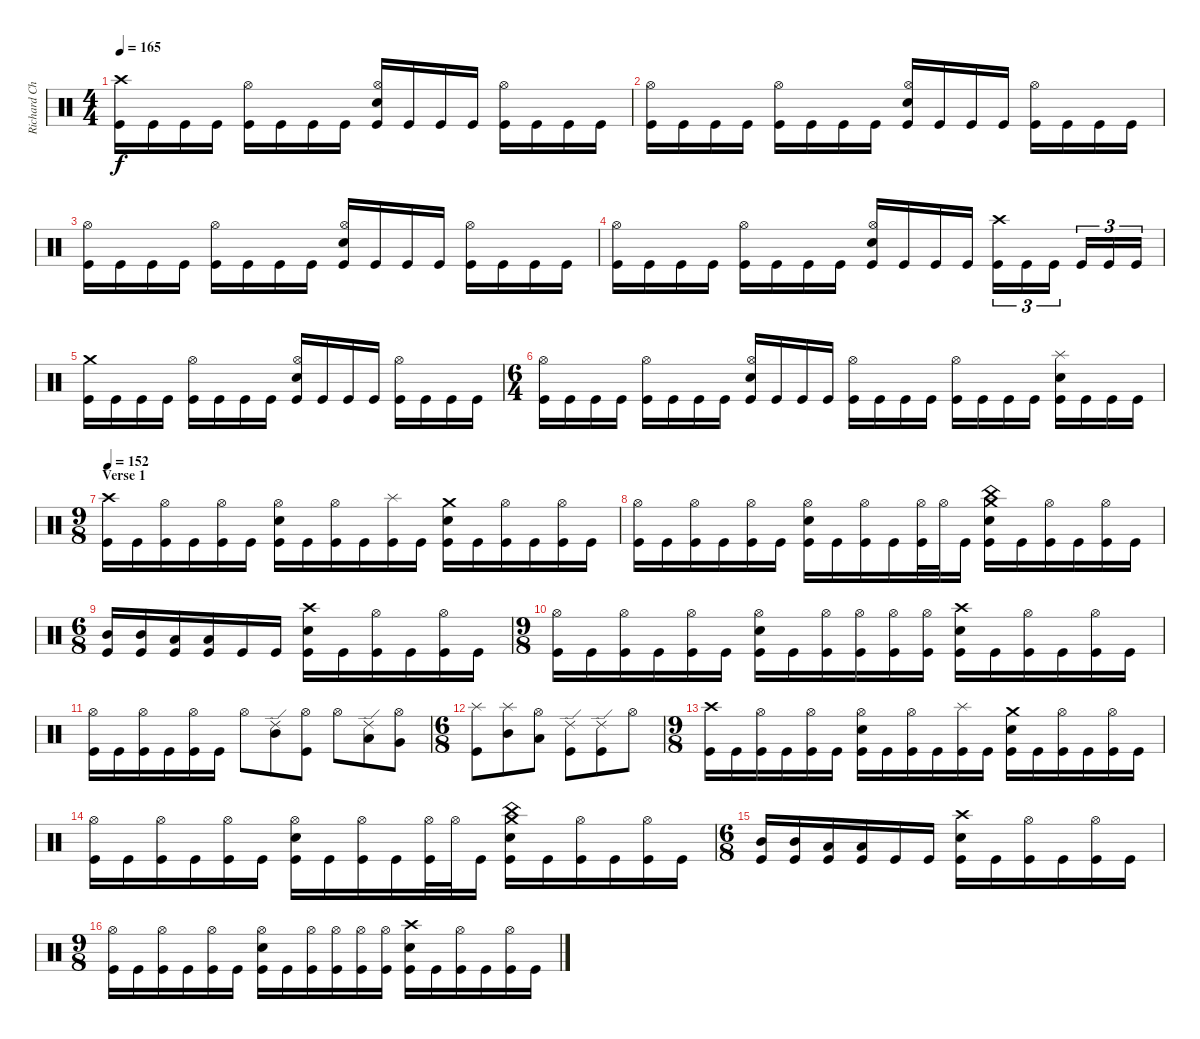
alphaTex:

\track ("Richard Christy " "Richard Ch") {instrument percussion}
\staff {score}
\articulation defaults
\ts (4 4)
\tempo 165
\clef neutral
\ks c
("Crash high (hit)" "Kick (hit)").16{dy f} "Kick (hit)".16 "Kick (hit)".16 "Kick (hit)".16 ("Hi-Hat (open)" "Kick (hit)").16 "Kick (hit)".16 "Kick (hit)".16 "Kick (hit)".16 ("Hi-Hat (open)" "Electric Snare (hit)" "Kick (hit)").16 "Kick (hit)".16 "Kick (hit)".16 "Kick (hit)".16 ("Hi-Hat (open)" "Kick (hit)").16 "Kick (hit)".16 "Kick (hit)".16 "Kick (hit)".16 |
("Hi-Hat (open)" "Kick (hit)").16 "Kick (hit)".16 "Kick (hit)".16 "Kick (hit)".16 ("Hi-Hat (open)" "Kick (hit)").16 "Kick (hit)".16 "Kick (hit)".16 "Kick (hit)".16 ("Hi-Hat (open)" "Electric Snare (hit)" "Kick (hit)").16 "Kick (hit)".16 "Kick (hit)".16 "Kick (hit)".16 ("Hi-Hat (open)" "Kick (hit)").16 "Kick (hit)".16 "Kick (hit)".16 "Kick (hit)".16 |
("Hi-Hat (open)" "Kick (hit)").16 "Kick (hit)".16 "Kick (hit)".16 "Kick (hit)".16 ("Hi-Hat (open)" "Kick (hit)").16 "Kick (hit)".16 "Kick (hit)".16 "Kick (hit)".16 ("Hi-Hat (open)" "Electric Snare (hit)" "Kick (hit)").16 "Kick (hit)".16 "Kick (hit)".16 "Kick (hit)".16 ("Hi-Hat (open)" "Kick (hit)").16 "Kick (hit)".16 "Kick (hit)".16 "Kick (hit)".16 |
("Hi-Hat (open)" "Kick (hit)").16 "Kick (hit)".16 "Kick (hit)".16 "Kick (hit)".16 ("Hi-Hat (open)" "Kick (hit)").16 "Kick (hit)".16 "Kick (hit)".16 "Kick (hit)".16 ("Hi-Hat (open)" "Electric Snare (hit)" "Kick (hit)").16 "Kick (hit)".16 "Kick (hit)".16 "Kick (hit)".16 ("Crash high (hit)" "Kick (hit)").16{tu (3 2)} "Kick (hit)".16{tu (3 2)} "Kick (hit)".16{tu (3 2)} "Kick (hit)".16{tu (3 2)} "Kick (hit)".16{tu (3 2)} "Kick (hit)".16{tu (3 2)} |
("Crash medium (hit)" "Kick (hit)").16 "Kick (hit)".16 "Kick (hit)".16 "Kick (hit)".16 ("Hi-Hat (open)" "Kick (hit)").16 "Kick (hit)".16 "Kick (hit)".16 "Kick (hit)".16 ("Hi-Hat (open)" "Electric Snare (hit)" "Kick (hit)").16 "Kick (hit)".16 "Kick (hit)".16 "Kick (hit)".16 ("Hi-Hat (open)" "Kick (hit)").16 "Kick (hit)".16 "Kick (hit)".16 "Kick (hit)".16 |
\ts (6 4)
("Hi-Hat (open)" "Kick (hit)").16 "Kick (hit)".16 "Kick (hit)".16 "Kick (hit)".16 ("Hi-Hat (open)" "Kick (hit)").16 "Kick (hit)".16 "Kick (hit)".16 "Kick (hit)".16 ("Hi-Hat (open)" "Electric Snare (hit)" "Kick (hit)").16 "Kick (hit)".16 "Kick (hit)".16 "Kick (hit)".16 ("Hi-Hat (open)" "Kick (hit)").16 "Kick (hit)".16 "Kick (hit)".16 "Kick (hit)".16 ("Hi-Hat (open)" "Kick (hit)").16 "Kick (hit)".16 "Kick (hit)".16 "Kick (hit)".16 ("Splash (hit)" "Electric Snare (hit)" "Kick (hit)").16 "Kick (hit)".16 "Kick (hit)".16 "Kick (hit)".16 |
\ts (9 8)
\section ("" "Verse 1")
\tempo 152
("Crash high (hit)" "Kick (hit)").16 "Kick (hit)".16 ("Hi-Hat (open)" "Kick (hit)").16 "Kick (hit)".16 ("Hi-Hat (open)" "Kick (hit)").16 "Kick (hit)".16 ("Hi-Hat (open)" "Electric Snare (hit)" "Kick (hit)").16 "Kick (hit)".16 ("Hi-Hat (open)" "Kick (hit)").16 "Kick (hit)".16 ("Splash (hit)" "Kick (hit)").16 "Kick (hit)".16 ("Crash medium (hit)" "Electric Snare (hit)" "Kick (hit)").16 "Kick (hit)".16 ("Hi-Hat (open)" "Kick (hit)").16 "Kick (hit)".16 ("Hi-Hat (open)" "Kick (hit)").16 "Kick (hit)".16 |
("Hi-Hat (open)" "Kick (hit)").16 "Kick (hit)".16 ("Hi-Hat (open)" "Kick (hit)").16 "Kick (hit)".16 ("Hi-Hat (open)" "Kick (hit)").16 "Kick (hit)".16 ("Hi-Hat (open)" "Electric Snare (hit)" "Kick (hit)").16 "Kick (hit)".16 ("Hi-Hat (open)" "Kick (hit)").16 "Kick (hit)".16 ("Hi-Hat (open)" "Kick (hit)").32 "Hi-Hat (open)".32 "Kick (hit)".16 ("Crash medium (hit)" "China (hit)" "Electric Snare (hit)" "Kick (hit)").16 "Kick (hit)".16 ("Hi-Hat (open)" "Kick (hit)").16 "Kick (hit)".16 ("Hi-Hat (open)" "Kick (hit)").16 "Kick (hit)".16 |
\ts (6 8)
("Mid Tom (hit)" "Kick (hit)").16 ("Mid Tom (hit)" "Kick (hit)").16 ("Low Tom (hit)" "Kick (hit)").16 ("Low Tom (hit)" "Kick (hit)").16 "Kick (hit)".16 "Kick (hit)".16 ("Crash high (hit)" "Electric Snare (hit)" "Kick (hit)").16 "Kick (hit)".16 ("Hi-Hat (open)" "Kick (hit)").16 "Kick (hit)".16 ("Hi-Hat (open)" "Kick (hit)").16 "Kick (hit)".16 |
\ts (9 8)
("Hi-Hat (open)" "Kick (hit)").16 "Kick (hit)".16 ("Hi-Hat (open)" "Kick (hit)").16 "Kick (hit)".16 ("Hi-Hat (open)" "Kick (hit)").16 "Kick (hit)".16 ("Hi-Hat (open)" "Electric Snare (hit)" "Kick (hit)").16 "Kick (hit)".16 ("Hi-Hat (open)" "Kick (hit)").16 ("Hi-Hat (open)" "Kick (hit)").16 ("Hi-Hat (open)" "Kick (hit)").16 ("Hi-Hat (open)" "Kick (hit)").16 ("Crash high (hit)" "Electric Snare (hit)" "Kick (hit)").16 "Kick (hit)".16 ("Hi-Hat (open)" "Kick (hit)").16 "Kick (hit)".16 ("Hi-Hat (open)" "Kick (hit)").16 "Kick (hit)".16 |
("Hi-Hat (open)" "Kick (hit)").16 "Kick (hit)".16 ("Hi-Hat (open)" "Kick (hit)").16 "Kick (hit)".16 ("Hi-Hat (open)" "Kick (hit)").16 "Kick (hit)".16 "Hi-Hat (open)".8 ("Ride (edge) 2" "Mid Tom (hit)").8 ("Hi-Hat (open)" "Kick (hit)").8 "Hi-Hat (open)".8 ("Ride (edge) 2" "Low Tom (hit)").8 ("Hi-Hat (open)" "Very Low Tom (hit)").8 |
\ts (6 8)
("Splash (hit)" "Kick (hit)").8 ("Splash (hit)" "Mid Tom (hit)").8 ("Hi-Hat (open)" "Low Tom (hit)").8 ("Ride (edge) 2" "Kick (hit)").8 ("Ride (edge) 2" "Kick (hit)").8 "Hi-Hat (open)".8 |
\ts (9 8)
("Crash high (hit)" "Kick (hit)").16 "Kick (hit)".16 ("Hi-Hat (open)" "Kick (hit)").16 "Kick (hit)".16 ("Hi-Hat (open)" "Kick (hit)").16 "Kick (hit)".16 ("Hi-Hat (open)" "Electric Snare (hit)" "Kick (hit)").16 "Kick (hit)".16 ("Hi-Hat (open)" "Kick (hit)").16 "Kick (hit)".16 ("Splash (hit)" "Kick (hit)").16 "Kick (hit)".16 ("Crash medium (hit)" "Electric Snare (hit)" "Kick (hit)").16 "Kick (hit)".16 ("Hi-Hat (open)" "Kick (hit)").16 "Kick (hit)".16 ("Hi-Hat (open)" "Kick (hit)").16 "Kick (hit)".16 |
("Hi-Hat (open)" "Kick (hit)").16 "Kick (hit)".16 ("Hi-Hat (open)" "Kick (hit)").16 "Kick (hit)".16 ("Hi-Hat (open)" "Kick (hit)").16 "Kick (hit)".16 ("Hi-Hat (open)" "Electric Snare (hit)" "Kick (hit)").16 "Kick (hit)".16 ("Hi-Hat (open)" "Kick (hit)").16 "Kick (hit)".16 ("Hi-Hat (open)" "Kick (hit)").32 "Hi-Hat (open)".32 "Kick (hit)".16 ("Crash medium (hit)" "China (hit)" "Electric Snare (hit)" "Kick (hit)").16 "Kick (hit)".16 ("Hi-Hat (open)" "Kick (hit)").16 "Kick (hit)".16 ("Hi-Hat (open)" "Kick (hit)").16 "Kick (hit)".16 |
\ts (6 8)
("Mid Tom (hit)" "Kick (hit)").16 ("Mid Tom (hit)" "Kick (hit)").16 ("Low Tom (hit)" "Kick (hit)").16 ("Low Tom (hit)" "Kick (hit)").16 "Kick (hit)".16 "Kick (hit)".16 ("Crash high (hit)" "Electric Snare (hit)" "Kick (hit)").16 "Kick (hit)".16 ("Hi-Hat (open)" "Kick (hit)").16 "Kick (hit)".16 ("Hi-Hat (open)" "Kick (hit)").16 "Kick (hit)".16 |
\ts (9 8)
("Hi-Hat (open)" "Kick (hit)").16 "Kick (hit)".16 ("Hi-Hat (open)" "Kick (hit)").16 "Kick (hit)".16 ("Hi-Hat (open)" "Kick (hit)").16 "Kick (hit)".16 ("Hi-Hat (open)" "Electric Snare (hit)" "Kick (hit)").16 "Kick (hit)".16 ("Hi-Hat (open)" "Kick (hit)").16 ("Hi-Hat (open)" "Kick (hit)").16 ("Hi-Hat (open)" "Kick (hit)").16 ("Hi-Hat (open)" "Kick (hit)").16 ("Crash high (hit)" "Electric Snare (hit)" "Kick (hit)").16 "Kick (hit)".16 ("Hi-Hat (open)" "Kick (hit)").16 "Kick (hit)".16 ("Hi-Hat (open)" "Kick (hit)").16 "Kick (hit)".16
